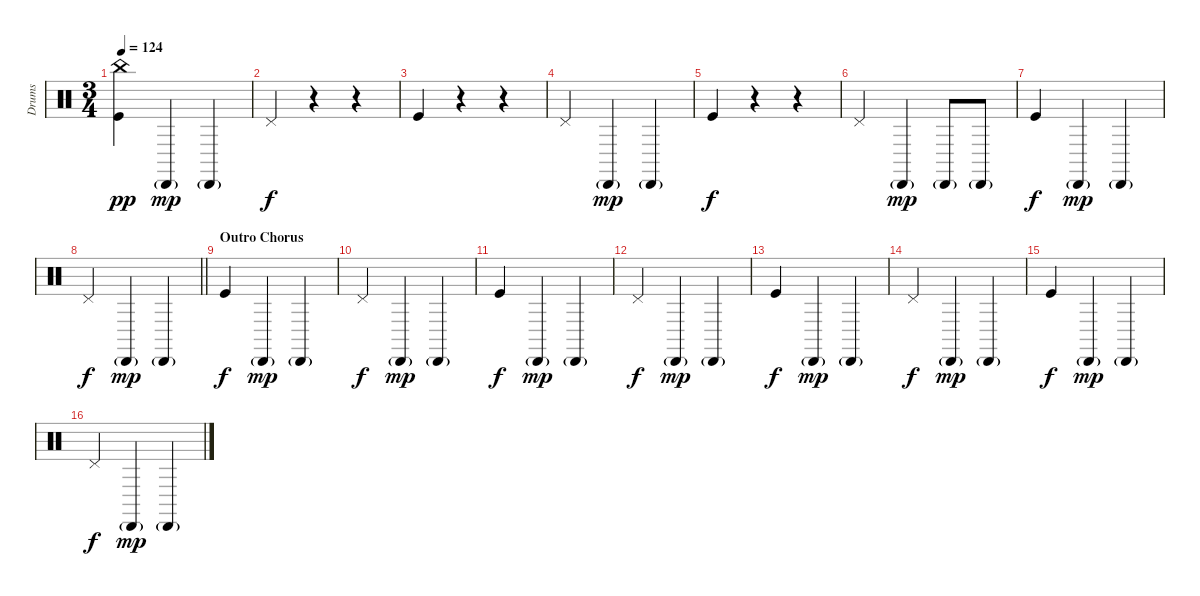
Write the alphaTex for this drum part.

\track ("Drums" "Drums") {instrument percussion}
\staff {score}
\articulation defaults
\ts (3 4)
\tempo 124
\clef neutral
\ks c
("China (hit)" "Kick (hit)").4{dy pp} "Cabasa (hit)"{g}.4{dy mp} "Cabasa (hit)"{g}.4 |
"Pedal Hi-Hat (hit)".4{dy f} r.4 r.4 |
"Kick (hit)".4 r.4 r.4 |
"Pedal Hi-Hat (hit)".4 "Cabasa (hit)"{g}.4{dy mp} "Cabasa (hit)"{g}.4 |
"Kick (hit)".4{dy f} r.4 r.4 |
"Pedal Hi-Hat (hit)".4 "Cabasa (hit)"{g}.4{dy mp} "Cabasa (hit)"{g}.8 "Cabasa (hit)"{g}.8 |
"Kick (hit)".4{dy f} "Cabasa (hit)"{g}.4{dy mp} "Cabasa (hit)"{g}.4 |
\barLineRight lightlight "Pedal Hi-Hat (hit)".4{dy f} "Cabasa (hit)"{g}.4{dy mp} "Cabasa (hit)"{g}.4
|
\section ("" "Outro Chorus")
"Kick (hit)".4{dy f} "Cabasa (hit)"{g}.4{dy mp} "Cabasa (hit)"{g}.4 |
"Pedal Hi-Hat (hit)".4{dy f} "Cabasa (hit)"{g}.4{dy mp} "Cabasa (hit)"{g}.4 |
"Kick (hit)".4{dy f} "Cabasa (hit)"{g}.4{dy mp} "Cabasa (hit)"{g}.4 |
"Pedal Hi-Hat (hit)".4{dy f} "Cabasa (hit)"{g}.4{dy mp} "Cabasa (hit)"{g}.4 |
"Kick (hit)".4{dy f} "Cabasa (hit)"{g}.4{dy mp} "Cabasa (hit)"{g}.4 |
"Pedal Hi-Hat (hit)".4{dy f} "Cabasa (hit)"{g}.4{dy mp} "Cabasa (hit)"{g}.4 |
"Kick (hit)".4{dy f} "Cabasa (hit)"{g}.4{dy mp} "Cabasa (hit)"{g}.4 |
"Pedal Hi-Hat (hit)".4{dy f} "Cabasa (hit)"{g}.4{dy mp} "Cabasa (hit)"{g}.4
